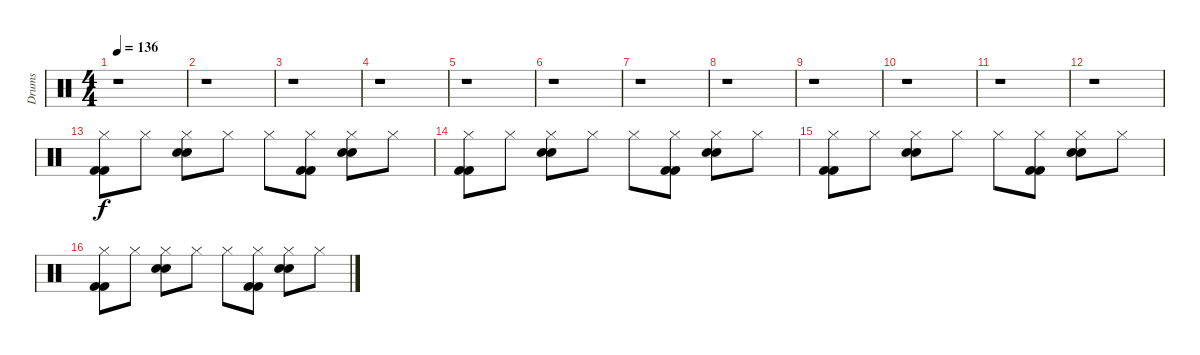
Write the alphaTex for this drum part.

\track ("Drums" "Drums") {instrument percussion}
\staff {score}
\articulation defaults
\ts (4 4)
\tempo 136
\clef neutral
\ks c
r.1{dy f} |
r.1 |
r.1 |
r.1 |
r.1 |
r.1 |
r.1 |
r.1 |
r.1 |
r.1 |
r.1 |
r.1 |
("Kick (hit) 2" "Kick (hit) 2" "Hi-Hat (closed)").8 "Hi-Hat (closed)".8 ("Electric Snare (hit)" "Electric Snare (hit)" "Hi-Hat (closed)").8 "Hi-Hat (closed)".8 "Hi-Hat (closed)".8 ("Kick (hit) 2" "Kick (hit) 2" "Hi-Hat (closed)").8 ("Electric Snare (hit)" "Electric Snare (hit)" "Hi-Hat (closed)").8 "Hi-Hat (closed)".8 |
("Kick (hit) 2" "Kick (hit) 2" "Hi-Hat (closed)").8 "Hi-Hat (closed)".8 ("Electric Snare (hit)" "Electric Snare (hit)" "Hi-Hat (closed)").8 "Hi-Hat (closed)".8 "Hi-Hat (closed)".8 ("Kick (hit) 2" "Kick (hit) 2" "Hi-Hat (closed)").8 ("Electric Snare (hit)" "Electric Snare (hit)" "Hi-Hat (closed)").8 "Hi-Hat (closed)".8 |
("Kick (hit) 2" "Kick (hit) 2" "Hi-Hat (closed)").8 "Hi-Hat (closed)".8 ("Electric Snare (hit)" "Electric Snare (hit)" "Hi-Hat (closed)").8 "Hi-Hat (closed)".8 "Hi-Hat (closed)".8 ("Kick (hit) 2" "Kick (hit) 2" "Hi-Hat (closed)").8 ("Electric Snare (hit)" "Electric Snare (hit)" "Hi-Hat (closed)").8 "Hi-Hat (closed)".8 |
("Kick (hit) 2" "Kick (hit) 2" "Hi-Hat (closed)").8 "Hi-Hat (closed)".8 ("Electric Snare (hit)" "Electric Snare (hit)" "Hi-Hat (closed)").8 "Hi-Hat (closed)".8 "Hi-Hat (closed)".8 ("Kick (hit) 2" "Kick (hit) 2" "Hi-Hat (closed)").8 ("Electric Snare (hit)" "Electric Snare (hit)" "Hi-Hat (closed)").8 "Hi-Hat (closed)".8
